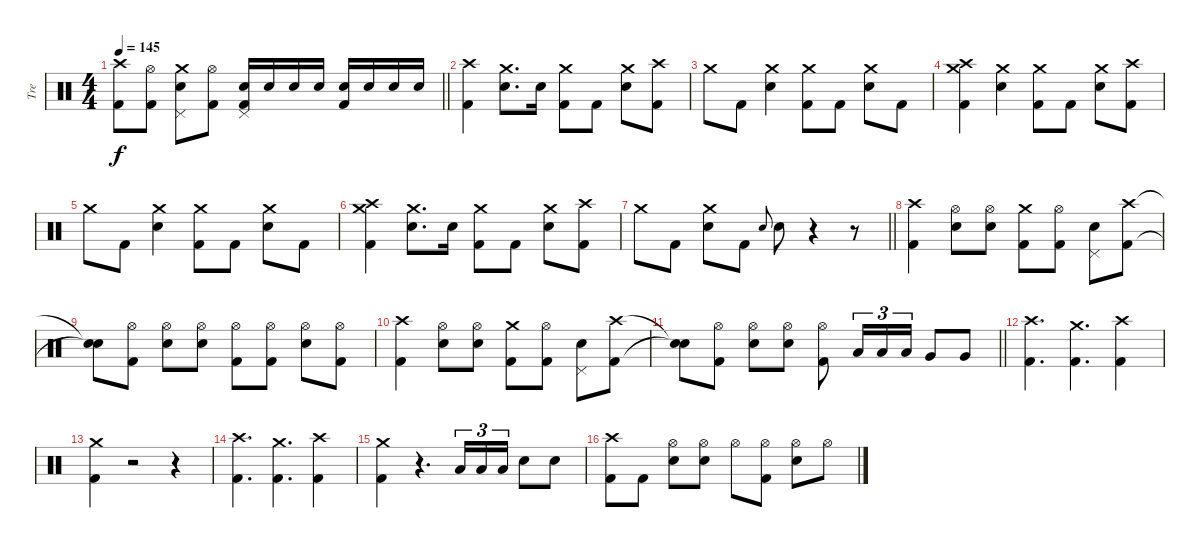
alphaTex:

\track ("Tre" "Tre") {instrument percussion}
\staff {score}
\articulation defaults
\ts (4 4)
\tempo 145
\clef neutral
\barLineRight lightlight
\ks c
("Crash high (hit)" "Kick (hit) 2").8{dy f} ("Hi-Hat (open)" "Kick (hit) 2").8 ("Crash medium (hit)" "Snare (hit) 2" "Pedal Hi-Hat (hit)").8 ("Hi-Hat (open)" "Kick (hit) 2").8 ("Snare (hit) 2" "Pedal Hi-Hat (hit)" "Kick (hit) 2").16 "Snare (hit) 2".16 "Snare (hit) 2".16 "Snare (hit) 2".16 ("Snare (hit) 2" "Kick (hit) 2").16 "Snare (hit) 2".16 "Snare (hit) 2".16 "Snare (hit) 2".16 |
("Crash high (hit)" "Kick (hit) 2").4 ("Crash medium (hit)" "Snare (hit) 2").8{d} "Snare (hit) 2".16 ("Crash medium (hit)" "Kick (hit) 2").8 "Kick (hit) 2".8 ("Crash medium (hit)" "Snare (hit) 2").8 ("Crash high (hit)" "Kick (hit) 2").8 |
"Crash medium (hit)".8 "Kick (hit) 2".8 ("Crash medium (hit)" "Snare (hit) 2").4 ("Crash medium (hit)" "Kick (hit) 2").8 "Kick (hit) 2".8 ("Crash medium (hit)" "Snare (hit) 2").8 "Kick (hit) 2".8 |
("Crash medium (hit)" "Crash high (hit)" "Kick (hit) 2").4 ("Crash medium (hit)" "Snare (hit) 2").4 ("Crash medium (hit)" "Kick (hit) 2").8 "Kick (hit) 2".8 ("Crash medium (hit)" "Snare (hit) 2").8 ("Crash high (hit)" "Kick (hit) 2").8 |
"Crash medium (hit)".8 "Kick (hit) 2".8 ("Crash medium (hit)" "Snare (hit) 2").4 ("Crash medium (hit)" "Kick (hit) 2").8 "Kick (hit) 2".8 ("Crash medium (hit)" "Snare (hit) 2").8 "Kick (hit) 2".8 |
("Crash medium (hit)" "Crash high (hit)" "Kick (hit) 2").4 ("Crash medium (hit)" "Snare (hit) 2").8{d} "Snare (hit) 2".16 ("Crash medium (hit)" "Kick (hit) 2").8 "Kick (hit) 2".8 ("Crash medium (hit)" "Snare (hit) 2").8 ("Crash high (hit)" "Kick (hit) 2").8 |
\barLineRight lightlight "Crash medium (hit)".8 "Kick (hit) 2".8
("Crash medium (hit)" "Snare (hit) 2").8 "Kick (hit) 2".8 "Snare (hit) 2".8{gr onbeat} "Snare (hit) 2".8 r.4 r.8 |
("Crash high (hit)" "Kick (hit) 2").4 ("Hi-Hat (open)" "Snare (hit) 2").8 ("Hi-Hat (open)" "Snare (hit) 2").8 ("Crash medium (hit)" "Kick (hit) 2").8 ("Hi-Hat (open)" "Kick (hit) 2").8 ("Snare (hit) 2" "Pedal Hi-Hat (hit)").8 ("Crash high (hit)" "Kick (hit) 2").8 |
("Snare (hit)"{t} "Snare (hit)"{t}).8 ("Hi-Hat (open)" "Kick (hit) 2").8 ("Hi-Hat (open)" "Snare (hit) 2").8 ("Hi-Hat (open)" "Snare (hit) 2").8 ("Hi-Hat (open)" "Kick (hit) 2").8 ("Hi-Hat (open)" "Kick (hit) 2").8 ("Hi-Hat (open)" "Snare (hit) 2").8 ("Hi-Hat (open)" "Kick (hit) 2").8 |
("Crash high (hit)" "Kick (hit) 2").4 ("Hi-Hat (open)" "Snare (hit) 2").8 ("Hi-Hat (open)" "Snare (hit) 2").8 ("Crash medium (hit)" "Kick (hit) 2").8 ("Hi-Hat (open)" "Kick (hit) 2").8 ("Snare (hit) 2" "Pedal Hi-Hat (hit)").8 ("Crash high (hit)" "Kick (hit) 2").8 |
\barLineRight lightlight
("Snare (hit)"{t} "Snare (hit)"{t}).8 ("Hi-Hat (open)" "Kick (hit) 2").8 ("Hi-Hat (open)" "Snare (hit) 2").8 ("Hi-Hat (open)" "Snare (hit) 2").8 ("Hi-Hat (open)" "Kick (hit) 2").8 "Low Tom (hit)".16{tu (3 2)} "Low Tom (hit)".16{tu (3 2)} "Low Tom (hit)".16{tu (3 2)} "Very Low Tom (hit)".8 "Very Low Tom (hit)".8 |
("Crash high (hit)" "Kick (hit) 2").4{d} ("Crash medium (hit)" "Kick (hit) 2").4{d} ("Crash high (hit)" "Kick (hit) 2").4 |
("Crash medium (hit)" "Kick (hit) 2").4 r.2 r.4 |
("Crash high (hit)" "Kick (hit) 2").4{d} ("Crash medium (hit)" "Kick (hit) 2").4{d} ("Crash high (hit)" "Kick (hit) 2").4 |
("Crash medium (hit)" "Kick (hit) 2").4 r.4{d} "Low Tom (hit)".16{tu (3 2)} "Low Tom (hit)".16{tu (3 2)} "Low Tom (hit)".16{tu (3 2)} "Snare (hit) 2".8 "Snare (hit) 2".8 |
("Crash high (hit)" "Kick (hit) 2").8 "Kick (hit) 2".8 ("Hi-Hat (open)" "Snare (hit) 2").8 ("Hi-Hat (open)" "Snare (hit) 2").8 "Hi-Hat (open)".8 ("Hi-Hat (open)" "Kick (hit) 2").8 ("Hi-Hat (open)" "Snare (hit) 2").8 "Hi-Hat (open)".8
